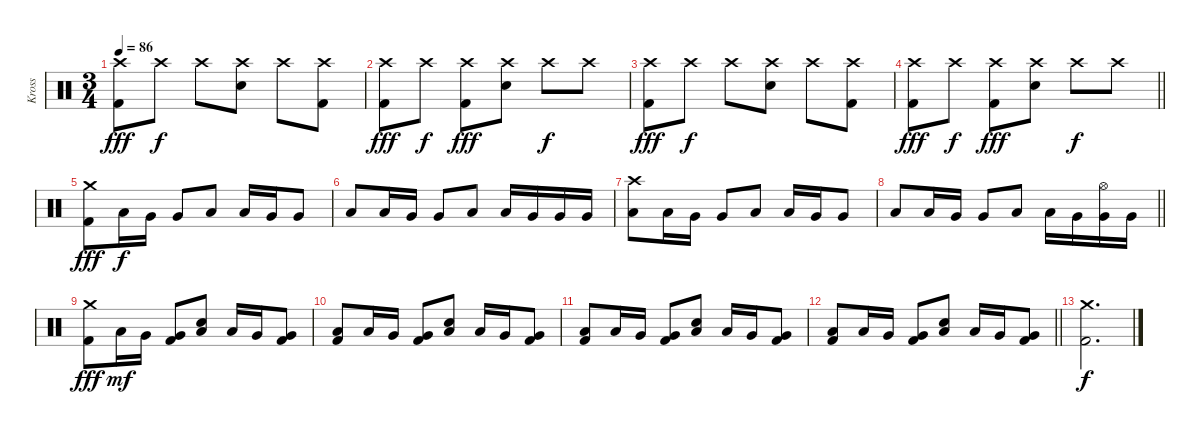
\track ("Kross" "Kross") {instrument percussion}
\staff {score}
\articulation defaults
\ts (3 4)
\tempo 86
\clef neutral
\ks c
("Crash high (hit)" "Kick (hit) 2").8{dy fff} "Crash high (hit)".8{dy f} "Crash high (hit)".8 ("Crash high (hit)" "Electric Snare (hit)").8 "Crash high (hit)".8 ("Crash high (hit)" "Kick (hit) 2").8 |
("Crash high (hit)" "Kick (hit) 2").8{dy fff} "Crash high (hit)".8{dy f} ("Crash high (hit)" "Kick (hit) 2").8{dy fff} ("Crash high (hit)" "Electric Snare (hit)").8 "Crash high (hit)".8{dy f} "Crash high (hit)".8 |
("Crash high (hit)" "Kick (hit) 2").8{dy fff} "Crash high (hit)".8{dy f} "Crash high (hit)".8 ("Crash high (hit)" "Electric Snare (hit)").8 "Crash high (hit)".8 ("Crash high (hit)" "Kick (hit) 2").8 |
\barLineRight lightlight
("Crash high (hit)" "Kick (hit) 2").8{dy fff} "Crash high (hit)".8{dy f} ("Crash high (hit)" "Kick (hit) 2").8{dy fff} ("Crash high (hit)" "Electric Snare (hit)").8 "Crash high (hit)".8{dy f} "Crash high (hit)".8 |
("Crash medium (hit)" "Kick (hit) 2").8{dy fff} "Low Tom (hit)".16{dy f} "Very Low Tom (hit)".16 "Very Low Tom (hit)".8 "Low Tom (hit)".8 "Low Tom (hit)".16 "Very Low Tom (hit)".16 "Very Low Tom (hit)".8 |
"Low Tom (hit)".8 "Low Tom (hit)".16 "Very Low Tom (hit)".16 "Very Low Tom (hit)".8 "Low Tom (hit)".8 "Low Tom (hit)".16 "Very Low Tom (hit)".16 "Very Low Tom (hit)".16 "Very Low Tom (hit)".16 |
("Crash high (hit)" "Low Tom (hit)").8 "Low Tom (hit)".16 "Very Low Tom (hit)".16 "Very Low Tom (hit)".8 "Low Tom (hit)".8 "Low Tom (hit)".16 "Very Low Tom (hit)".16 "Very Low Tom (hit)".8 |
\barLineRight lightlight "Low Tom (hit)".8 "Low Tom (hit)".16 "Very Low Tom (hit)".16 "Very Low Tom (hit)".8 "Low Tom (hit)".8 "Low Tom (hit)".16 "Very Low Tom (hit)".16
("Hi-Hat (open)" "Very Low Tom (hit)").16 "Very Low Tom (hit)".16 |
("Crash medium (hit)" "Kick (hit) 2").8{dy fff} "Low Tom (hit)".16{dy mf} "Very Low Tom (hit)".16 ("Very Low Tom (hit)" "Kick (hit) 2").8 ("Low Tom (hit)" "Electric Snare (hit)").8 "Low Tom (hit)".16 "Very Low Tom (hit)".16 ("Very Low Tom (hit)" "Kick (hit) 2").8 |
("Low Tom (hit)" "Kick (hit) 2").8 "Low Tom (hit)".16 "Very Low Tom (hit)".16 ("Very Low Tom (hit)" "Kick (hit) 2").8 ("Low Tom (hit)" "Electric Snare (hit)").8 "Low Tom (hit)".16 "Very Low Tom (hit)".16 ("Very Low Tom (hit)" "Kick (hit) 2").8 |
("Low Tom (hit)" "Kick (hit) 2").8 "Low Tom (hit)".16 "Very Low Tom (hit)".16 ("Very Low Tom (hit)" "Kick (hit) 2").8 ("Low Tom (hit)" "Electric Snare (hit)").8 "Low Tom (hit)".16 "Very Low Tom (hit)".16 ("Very Low Tom (hit)" "Kick (hit) 2").8 |
\barLineRight lightlight
("Low Tom (hit)" "Kick (hit) 2").8 "Low Tom (hit)".16 "Very Low Tom (hit)".16 ("Very Low Tom (hit)" "Kick (hit) 2").8 ("Low Tom (hit)" "Electric Snare (hit)").8 "Low Tom (hit)".16 "Very Low Tom (hit)".16 ("Very Low Tom (hit)" "Kick (hit) 2").8 |
("Crash medium (hit)" "Kick (hit) 2").2{d dy f}
